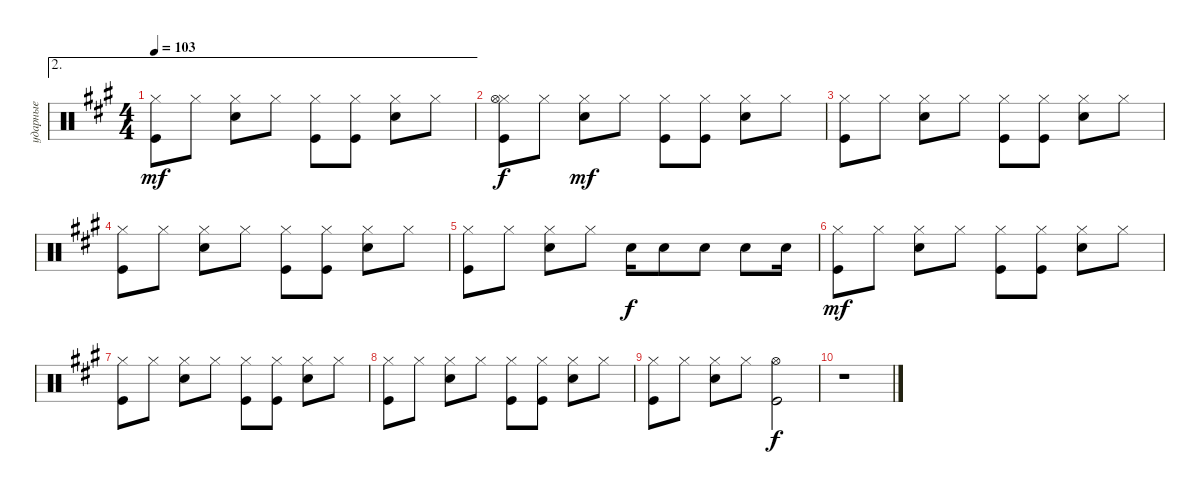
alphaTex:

\track ("ударные" "ударные") {instrument percussion}
\staff {score}
\articulation defaults
\ae 2
\ts (4 4)
\tempo 103
\clef neutral
\ks f#minor
("Kick (hit)" "Hi-Hat (closed)").8{dy mf} "Hi-Hat (closed)".8 ("Hi-Hat (closed)" "Electric Snare (hit)").8 "Hi-Hat (closed)".8 ("Hi-Hat (closed)" "Kick (hit)").8 ("Hi-Hat (closed)" "Kick (hit)").8 ("Hi-Hat (closed)" "Electric Snare (hit)").8 "Hi-Hat (closed)".8 |
("Kick (hit)" "Hi-Hat (closed)" "Hi-Hat (open)").8{dy f} "Hi-Hat (closed)".8 ("Hi-Hat (closed)" "Electric Snare (hit)").8{dy mf} "Hi-Hat (closed)".8 ("Hi-Hat (closed)" "Kick (hit)").8 ("Hi-Hat (closed)" "Kick (hit)").8 ("Hi-Hat (closed)" "Electric Snare (hit)").8 "Hi-Hat (closed)".8 |
("Kick (hit)" "Hi-Hat (closed)").8 "Hi-Hat (closed)".8 ("Hi-Hat (closed)" "Electric Snare (hit)").8 "Hi-Hat (closed)".8 ("Hi-Hat (closed)" "Kick (hit)").8 ("Hi-Hat (closed)" "Kick (hit)").8 ("Hi-Hat (closed)" "Electric Snare (hit)").8 "Hi-Hat (closed)".8 |
("Kick (hit)" "Hi-Hat (closed)").8 "Hi-Hat (closed)".8 ("Hi-Hat (closed)" "Electric Snare (hit)").8 "Hi-Hat (closed)".8 ("Hi-Hat (closed)" "Kick (hit)").8 ("Hi-Hat (closed)" "Kick (hit)").8 ("Hi-Hat (closed)" "Electric Snare (hit)").8 "Hi-Hat (closed)".8 |
("Kick (hit)" "Hi-Hat (closed)").8 "Hi-Hat (closed)".8 ("Hi-Hat (closed)" "Electric Snare (hit)").8 "Hi-Hat (closed)".8 "Electric Snare (hit)".16{dy f} "Electric Snare (hit)".8 "Snare (hit) 2".8 "Snare (hit) 2".8 "Electric Snare (hit)".16 |
("Kick (hit)" "Hi-Hat (closed)").8{dy mf} "Hi-Hat (closed)".8 ("Hi-Hat (closed)" "Electric Snare (hit)").8 "Hi-Hat (closed)".8 ("Hi-Hat (closed)" "Kick (hit)").8 ("Hi-Hat (closed)" "Kick (hit)").8 ("Hi-Hat (closed)" "Electric Snare (hit)").8 "Hi-Hat (closed)".8 |
("Kick (hit)" "Hi-Hat (closed)").8 "Hi-Hat (closed)".8 ("Hi-Hat (closed)" "Electric Snare (hit)").8 "Hi-Hat (closed)".8 ("Hi-Hat (closed)" "Kick (hit)").8 ("Hi-Hat (closed)" "Kick (hit)").8 ("Hi-Hat (closed)" "Electric Snare (hit)").8 "Hi-Hat (closed)".8 |
("Kick (hit)" "Hi-Hat (closed)").8 "Hi-Hat (closed)".8 ("Hi-Hat (closed)" "Electric Snare (hit)").8 "Hi-Hat (closed)".8 ("Hi-Hat (closed)" "Kick (hit)").8 ("Hi-Hat (closed)" "Kick (hit)").8 ("Hi-Hat (closed)" "Electric Snare (hit)").8 "Hi-Hat (closed)".8 |
("Kick (hit)" "Hi-Hat (closed)").8 "Hi-Hat (closed)".8 ("Hi-Hat (closed)" "Electric Snare (hit)").8 "Hi-Hat (closed)".8 ("Kick (hit)" "Hi-Hat (open)").2{dy f} |
r.1
